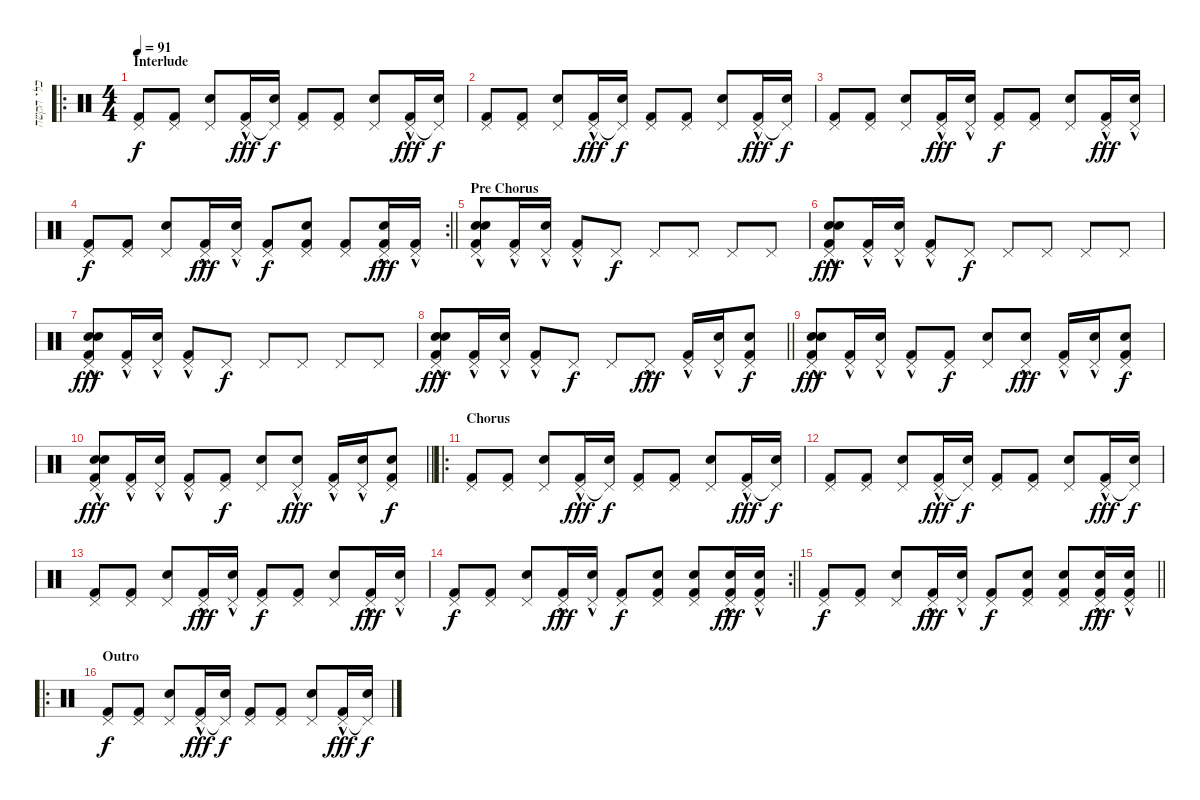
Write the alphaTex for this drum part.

\track ("כלי הקשה" "כלי הקשה") {instrument percussion}
\staff {score}
\articulation defaults
\ro
\ts (4 4)
\section ("" "Interlude")
\tempo 91
\clef neutral
\ks c
("Pedal Hi-Hat (hit)" "Kick (hit) 2").8{dy f} ("Pedal Hi-Hat (hit)" "Kick (hit) 2").8 ("Pedal Hi-Hat (hit)" "Electric Snare (hit)").8 ("Pedal Hi-Hat (hit)"{hac} "Kick (hit) 2").16{dy fff} ("Pedal Hi-Hat (hit)"{t} "Electric Snare (hit)").16{dy f} ("Pedal Hi-Hat (hit)" "Kick (hit) 2").8 ("Pedal Hi-Hat (hit)" "Kick (hit) 2").8 ("Pedal Hi-Hat (hit)" "Electric Snare (hit)").8 ("Pedal Hi-Hat (hit)"{hac} "Kick (hit) 2").16{dy fff} ("Pedal Hi-Hat (hit)"{t} "Electric Snare (hit)").16{dy f} |
("Pedal Hi-Hat (hit)" "Kick (hit) 2").8 ("Pedal Hi-Hat (hit)" "Kick (hit) 2").8 ("Pedal Hi-Hat (hit)" "Electric Snare (hit)").8 ("Pedal Hi-Hat (hit)"{hac} "Kick (hit) 2").16{dy fff} ("Pedal Hi-Hat (hit)"{t} "Electric Snare (hit)").16{dy f} ("Pedal Hi-Hat (hit)" "Kick (hit) 2").8 ("Pedal Hi-Hat (hit)" "Kick (hit) 2").8 ("Pedal Hi-Hat (hit)" "Electric Snare (hit)").8 ("Pedal Hi-Hat (hit)"{hac} "Kick (hit) 2").16{dy fff} ("Pedal Hi-Hat (hit)"{t} "Electric Snare (hit)").16{dy f} |
("Pedal Hi-Hat (hit)" "Kick (hit) 2").8 ("Pedal Hi-Hat (hit)" "Kick (hit) 2").8 ("Pedal Hi-Hat (hit)" "Electric Snare (hit)").8 ("Pedal Hi-Hat (hit)"{hac} "Kick (hit) 2").16{dy fff} ("Pedal Hi-Hat (hit)"{hac} "Electric Snare (hit)").16 ("Pedal Hi-Hat (hit)" "Kick (hit) 2").8{dy f} ("Pedal Hi-Hat (hit)" "Kick (hit) 2").8 ("Pedal Hi-Hat (hit)" "Electric Snare (hit)").8 ("Pedal Hi-Hat (hit)"{hac} "Kick (hit) 2").16{dy fff} ("Pedal Hi-Hat (hit)"{hac} "Electric Snare (hit)").16 |
\rc 2
\barLineRight lightlight
("Pedal Hi-Hat (hit)" "Kick (hit) 2").8{dy f} ("Pedal Hi-Hat (hit)" "Kick (hit) 2").8 ("Pedal Hi-Hat (hit)" "Electric Snare (hit)").8 ("Pedal Hi-Hat (hit)"{hac} "Kick (hit) 2").16{dy fff} ("Pedal Hi-Hat (hit)"{hac} "Electric Snare (hit)").16 ("Pedal Hi-Hat (hit)" "Kick (hit) 2").8{dy f} ("Pedal Hi-Hat (hit)" "Electric Snare (hit)" "Kick (hit) 2").8 ("Pedal Hi-Hat (hit)" "Kick (hit) 2").8 ("Pedal Hi-Hat (hit)"{hac} "Electric Snare (hit)" "Kick (hit) 2").16{dy fff} ("Pedal Hi-Hat (hit)"{hac} "Kick (hit) 2").16 |
\section ("" "Pre Chorus")
("Pedal Hi-Hat (hit)" "Electric Snare (hit)"{hac} "Electric Snare (hit)"{hac} "Kick (hit) 2"{hac}).8 ("Pedal Hi-Hat (hit)" "Kick (hit) 2"{hac}).16 ("Pedal Hi-Hat (hit)" "Electric Snare (hit)"{hac}).16 ("Pedal Hi-Hat (hit)" "Kick (hit) 2"{hac}).8 "Pedal Hi-Hat (hit)".8{dy f} "Pedal Hi-Hat (hit)".8 "Pedal Hi-Hat (hit)".8 "Pedal Hi-Hat (hit)".8 "Pedal Hi-Hat (hit)".8 |
("Pedal Hi-Hat (hit)" "Electric Snare (hit)"{hac} "Electric Snare (hit)"{hac} "Kick (hit) 2"{hac}).8{dy fff} ("Pedal Hi-Hat (hit)" "Kick (hit) 2"{hac}).16 ("Pedal Hi-Hat (hit)" "Electric Snare (hit)"{hac}).16 ("Pedal Hi-Hat (hit)" "Kick (hit) 2"{hac}).8 "Pedal Hi-Hat (hit)".8{dy f} "Pedal Hi-Hat (hit)".8 "Pedal Hi-Hat (hit)".8 "Pedal Hi-Hat (hit)".8 "Pedal Hi-Hat (hit)".8 |
("Pedal Hi-Hat (hit)" "Electric Snare (hit)"{hac} "Electric Snare (hit)"{hac} "Kick (hit) 2"{hac}).8{dy fff} ("Pedal Hi-Hat (hit)" "Kick (hit) 2"{hac}).16 ("Pedal Hi-Hat (hit)" "Electric Snare (hit)"{hac}).16 ("Pedal Hi-Hat (hit)" "Kick (hit) 2"{hac}).8 "Pedal Hi-Hat (hit)".8{dy f} "Pedal Hi-Hat (hit)".8 "Pedal Hi-Hat (hit)".8 "Pedal Hi-Hat (hit)".8 "Pedal Hi-Hat (hit)".8 |
\barLineRight lightlight
("Pedal Hi-Hat (hit)" "Electric Snare (hit)"{hac} "Electric Snare (hit)"{hac} "Kick (hit) 2"{hac}).8{dy fff} ("Pedal Hi-Hat (hit)" "Kick (hit) 2"{hac}).16 ("Pedal Hi-Hat (hit)" "Electric Snare (hit)"{hac}).16 ("Pedal Hi-Hat (hit)" "Kick (hit) 2"{hac}).8 "Pedal Hi-Hat (hit)".8{dy f} "Pedal Hi-Hat (hit)".8 "Pedal Hi-Hat (hit)"{hac}.8{dy fff} ("Pedal Hi-Hat (hit)"{hac} "Kick (hit) 2").16 ("Pedal Hi-Hat (hit)"{hac} "Electric Snare (hit)").16 ("Pedal Hi-Hat (hit)" "Electric Snare (hit)" "Kick (hit) 2").8{dy f} |
("Pedal Hi-Hat (hit)" "Electric Snare (hit)"{hac} "Electric Snare (hit)"{hac} "Kick (hit) 2"{hac}).8{dy fff} ("Pedal Hi-Hat (hit)" "Kick (hit) 2"{hac}).16 ("Pedal Hi-Hat (hit)" "Electric Snare (hit)"{hac}).16 ("Pedal Hi-Hat (hit)" "Kick (hit) 2"{hac}).8 ("Pedal Hi-Hat (hit)" "Kick (hit) 2").8{dy f} ("Pedal Hi-Hat (hit)" "Electric Snare (hit)").8 ("Pedal Hi-Hat (hit)"{hac} "Electric Snare (hit)").8{dy fff} ("Pedal Hi-Hat (hit)"{hac} "Kick (hit) 2").16 ("Pedal Hi-Hat (hit)"{hac} "Electric Snare (hit)").16 ("Pedal Hi-Hat (hit)" "Electric Snare (hit)" "Kick (hit) 2").8{dy f} |
\barLineRight lightlight
("Pedal Hi-Hat (hit)" "Electric Snare (hit)"{hac} "Electric Snare (hit)"{hac} "Kick (hit) 2"{hac}).8{dy fff} ("Pedal Hi-Hat (hit)" "Kick (hit) 2"{hac}).16 ("Pedal Hi-Hat (hit)" "Electric Snare (hit)"{hac}).16 ("Pedal Hi-Hat (hit)" "Kick (hit) 2"{hac}).8 ("Pedal Hi-Hat (hit)" "Kick (hit) 2").8{dy f} ("Pedal Hi-Hat (hit)" "Electric Snare (hit)").8 ("Pedal Hi-Hat (hit)"{hac} "Electric Snare (hit)").8{dy fff} ("Pedal Hi-Hat (hit)"{hac} "Kick (hit) 2").16 ("Pedal Hi-Hat (hit)"{hac} "Electric Snare (hit)").16 ("Pedal Hi-Hat (hit)" "Electric Snare (hit)" "Kick (hit) 2").8{dy f} |
\ro
\section ("" "Chorus")
("Pedal Hi-Hat (hit)" "Kick (hit) 2").8 ("Pedal Hi-Hat (hit)" "Kick (hit) 2").8 ("Pedal Hi-Hat (hit)" "Electric Snare (hit)").8 ("Pedal Hi-Hat (hit)"{hac} "Kick (hit) 2").16{dy fff} ("Pedal Hi-Hat (hit)"{t} "Electric Snare (hit)").16{dy f} ("Pedal Hi-Hat (hit)" "Kick (hit) 2").8 ("Pedal Hi-Hat (hit)" "Kick (hit) 2").8 ("Pedal Hi-Hat (hit)" "Electric Snare (hit)").8 ("Pedal Hi-Hat (hit)"{hac} "Kick (hit) 2").16{dy fff} ("Pedal Hi-Hat (hit)"{t} "Electric Snare (hit)").16{dy f} |
("Pedal Hi-Hat (hit)" "Kick (hit) 2").8 ("Pedal Hi-Hat (hit)" "Kick (hit) 2").8 ("Pedal Hi-Hat (hit)" "Electric Snare (hit)").8 ("Pedal Hi-Hat (hit)"{hac} "Kick (hit) 2").16{dy fff} ("Pedal Hi-Hat (hit)"{t} "Electric Snare (hit)").16{dy f} ("Pedal Hi-Hat (hit)" "Kick (hit) 2").8 ("Pedal Hi-Hat (hit)" "Kick (hit) 2").8 ("Pedal Hi-Hat (hit)" "Electric Snare (hit)").8 ("Pedal Hi-Hat (hit)"{hac} "Kick (hit) 2").16{dy fff} ("Pedal Hi-Hat (hit)"{t} "Electric Snare (hit)").16{dy f} |
("Pedal Hi-Hat (hit)" "Kick (hit) 2").8 ("Pedal Hi-Hat (hit)" "Kick (hit) 2").8 ("Pedal Hi-Hat (hit)" "Electric Snare (hit)").8 ("Pedal Hi-Hat (hit)"{hac} "Kick (hit) 2").16{dy fff} ("Pedal Hi-Hat (hit)"{hac} "Electric Snare (hit)").16 ("Pedal Hi-Hat (hit)" "Kick (hit) 2").8{dy f} ("Pedal Hi-Hat (hit)" "Kick (hit) 2").8 ("Pedal Hi-Hat (hit)" "Electric Snare (hit)").8 ("Pedal Hi-Hat (hit)"{hac} "Kick (hit) 2").16{dy fff} ("Pedal Hi-Hat (hit)"{hac} "Electric Snare (hit)").16 |
\rc 2
\barLineRight lightlight
("Pedal Hi-Hat (hit)" "Kick (hit) 2").8{dy f} ("Pedal Hi-Hat (hit)" "Kick (hit) 2").8 ("Pedal Hi-Hat (hit)" "Electric Snare (hit)").8 ("Pedal Hi-Hat (hit)"{hac} "Kick (hit) 2").16{dy fff} ("Pedal Hi-Hat (hit)"{hac} "Electric Snare (hit)").16 ("Pedal Hi-Hat (hit)" "Kick (hit) 2").8{dy f} ("Pedal Hi-Hat (hit)" "Electric Snare (hit)" "Kick (hit) 2").8 ("Pedal Hi-Hat (hit)" "Electric Snare (hit)" "Kick (hit) 2").8 ("Pedal Hi-Hat (hit)"{hac} "Electric Snare (hit)" "Kick (hit) 2").16{dy fff} ("Pedal Hi-Hat (hit)"{hac} "Electric Snare (hit)" "Kick (hit) 2").16 |
\barLineRight lightlight
("Pedal Hi-Hat (hit)" "Kick (hit) 2").8{dy f} ("Pedal Hi-Hat (hit)" "Kick (hit) 2").8 ("Pedal Hi-Hat (hit)" "Electric Snare (hit)").8 ("Pedal Hi-Hat (hit)"{hac} "Kick (hit) 2").16{dy fff} ("Pedal Hi-Hat (hit)"{hac} "Electric Snare (hit)").16 ("Pedal Hi-Hat (hit)" "Kick (hit) 2").8{dy f} ("Pedal Hi-Hat (hit)" "Electric Snare (hit)" "Kick (hit) 2").8 ("Pedal Hi-Hat (hit)" "Electric Snare (hit)" "Kick (hit) 2").8 ("Pedal Hi-Hat (hit)"{hac} "Electric Snare (hit)" "Kick (hit) 2").16{dy fff} ("Pedal Hi-Hat (hit)"{hac} "Electric Snare (hit)" "Kick (hit) 2").16 |
\ro
\section ("" "Outro")
("Pedal Hi-Hat (hit)" "Kick (hit) 2").8{dy f} ("Pedal Hi-Hat (hit)" "Kick (hit) 2").8 ("Pedal Hi-Hat (hit)" "Electric Snare (hit)").8 ("Pedal Hi-Hat (hit)"{hac} "Kick (hit) 2").16{dy fff} ("Pedal Hi-Hat (hit)"{t} "Electric Snare (hit)").16{dy f} ("Pedal Hi-Hat (hit)" "Kick (hit) 2").8 ("Pedal Hi-Hat (hit)" "Kick (hit) 2").8 ("Pedal Hi-Hat (hit)" "Electric Snare (hit)").8 ("Pedal Hi-Hat (hit)"{hac} "Kick (hit) 2").16{dy fff} ("Pedal Hi-Hat (hit)"{t} "Electric Snare (hit)").16{dy f}
